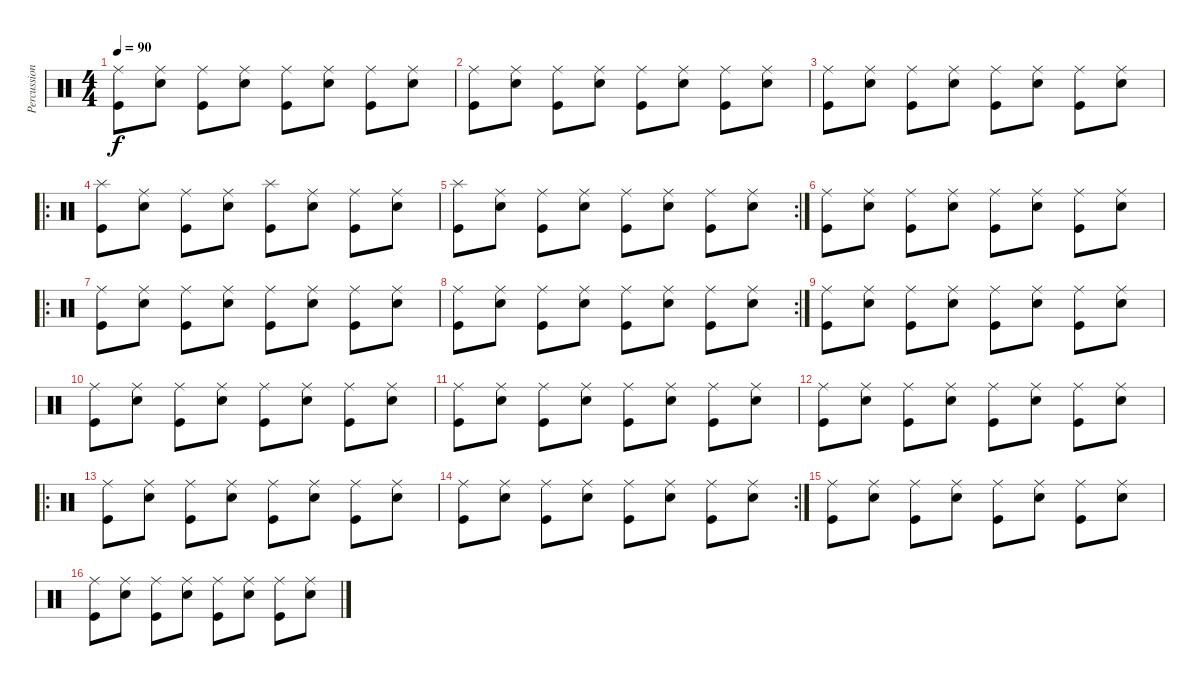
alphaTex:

\track ("Percussion" "Percussion") {instrument percussion}
\staff {score}
\articulation defaults
\ts (4 4)
\tempo 90
\clef neutral
\ks c
("Ride (middle)" "Kick (hit)").8{dy f} ("Ride (middle)" "Electric Snare (hit)").8 ("Ride (middle)" "Kick (hit)").8 ("Ride (middle)" "Electric Snare (hit)").8 ("Ride (middle)" "Kick (hit)").8 ("Ride (middle)" "Electric Snare (hit)").8 ("Ride (middle)" "Kick (hit)").8 ("Ride (middle)" "Electric Snare (hit)").8 |
("Ride (middle)" "Kick (hit)").8 ("Ride (middle)" "Electric Snare (hit)").8 ("Ride (middle)" "Kick (hit)").8 ("Ride (middle)" "Electric Snare (hit)").8 ("Ride (middle)" "Kick (hit)").8 ("Ride (middle)" "Electric Snare (hit)").8 ("Ride (middle)" "Kick (hit)").8 ("Ride (middle)" "Electric Snare (hit)").8 |
("Ride (middle)" "Kick (hit)").8 ("Ride (middle)" "Electric Snare (hit)").8 ("Ride (middle)" "Kick (hit)").8 ("Ride (middle)" "Electric Snare (hit)").8 ("Ride (middle)" "Kick (hit)").8 ("Ride (middle)" "Electric Snare (hit)").8 ("Ride (middle)" "Kick (hit)").8 ("Ride (middle)" "Electric Snare (hit)").8 |
\ro
("Splash (hit)" "Kick (hit)").8 ("Ride (middle)" "Electric Snare (hit)").8 ("Ride (middle)" "Kick (hit)").8 ("Ride (middle)" "Electric Snare (hit)").8 ("Splash (hit)" "Kick (hit)").8 ("Ride (middle)" "Electric Snare (hit)").8 ("Ride (middle)" "Kick (hit)").8 ("Ride (middle)" "Electric Snare (hit)").8 |
\rc 2
("Splash (hit)" "Kick (hit)").8 ("Ride (middle)" "Electric Snare (hit)").8 ("Ride (middle)" "Kick (hit)").8 ("Ride (middle)" "Electric Snare (hit)").8 ("Ride (middle)" "Kick (hit)").8 ("Ride (middle)" "Electric Snare (hit)").8 ("Ride (middle)" "Kick (hit)").8 ("Ride (middle)" "Electric Snare (hit)").8 |
("Ride (middle)" "Kick (hit)").8 ("Ride (middle)" "Electric Snare (hit)").8 ("Ride (middle)" "Kick (hit)").8 ("Ride (middle)" "Electric Snare (hit)").8 ("Ride (middle)" "Kick (hit)").8 ("Ride (middle)" "Electric Snare (hit)").8 ("Ride (middle)" "Kick (hit)").8 ("Ride (middle)" "Electric Snare (hit)").8 |
\ro
("Ride (middle)" "Kick (hit)").8 ("Ride (middle)" "Electric Snare (hit)").8 ("Ride (middle)" "Kick (hit)").8 ("Ride (middle)" "Electric Snare (hit)").8 ("Ride (middle)" "Kick (hit)").8 ("Ride (middle)" "Electric Snare (hit)").8 ("Ride (middle)" "Kick (hit)").8 ("Ride (middle)" "Electric Snare (hit)").8 |
\rc 2
("Ride (middle)" "Kick (hit)").8 ("Ride (middle)" "Electric Snare (hit)").8 ("Ride (middle)" "Kick (hit)").8 ("Ride (middle)" "Electric Snare (hit)").8 ("Ride (middle)" "Kick (hit)").8 ("Ride (middle)" "Electric Snare (hit)").8 ("Ride (middle)" "Kick (hit)").8 ("Ride (middle)" "Electric Snare (hit)").8 |
("Ride (middle)" "Kick (hit)").8 ("Ride (middle)" "Electric Snare (hit)").8 ("Ride (middle)" "Kick (hit)").8 ("Ride (middle)" "Electric Snare (hit)").8 ("Ride (middle)" "Kick (hit)").8 ("Ride (middle)" "Electric Snare (hit)").8 ("Ride (middle)" "Kick (hit)").8 ("Ride (middle)" "Electric Snare (hit)").8 |
("Ride (middle)" "Kick (hit)").8 ("Ride (middle)" "Electric Snare (hit)").8 ("Ride (middle)" "Kick (hit)").8 ("Ride (middle)" "Electric Snare (hit)").8 ("Ride (middle)" "Kick (hit)").8 ("Ride (middle)" "Electric Snare (hit)").8 ("Ride (middle)" "Kick (hit)").8 ("Ride (middle)" "Electric Snare (hit)").8 |
("Ride (middle)" "Kick (hit)").8 ("Ride (middle)" "Electric Snare (hit)").8 ("Ride (middle)" "Kick (hit)").8 ("Ride (middle)" "Electric Snare (hit)").8 ("Ride (middle)" "Kick (hit)").8 ("Ride (middle)" "Electric Snare (hit)").8 ("Ride (middle)" "Kick (hit)").8 ("Ride (middle)" "Electric Snare (hit)").8 |
("Ride (middle)" "Kick (hit)").8 ("Ride (middle)" "Electric Snare (hit)").8 ("Ride (middle)" "Kick (hit)").8 ("Ride (middle)" "Electric Snare (hit)").8 ("Ride (middle)" "Kick (hit)").8 ("Ride (middle)" "Electric Snare (hit)").8 ("Ride (middle)" "Kick (hit)").8 ("Ride (middle)" "Electric Snare (hit)").8 |
\ro
("Ride (middle)" "Kick (hit)").8 ("Ride (middle)" "Electric Snare (hit)").8 ("Ride (middle)" "Kick (hit)").8 ("Ride (middle)" "Electric Snare (hit)").8 ("Ride (middle)" "Kick (hit)").8 ("Ride (middle)" "Electric Snare (hit)").8 ("Ride (middle)" "Kick (hit)").8 ("Ride (middle)" "Electric Snare (hit)").8 |
\rc 2
("Ride (middle)" "Kick (hit)").8 ("Ride (middle)" "Electric Snare (hit)").8 ("Ride (middle)" "Kick (hit)").8 ("Ride (middle)" "Electric Snare (hit)").8 ("Ride (middle)" "Kick (hit)").8 ("Ride (middle)" "Electric Snare (hit)").8 ("Ride (middle)" "Kick (hit)").8 ("Ride (middle)" "Electric Snare (hit)").8 |
("Ride (middle)" "Kick (hit)").8 ("Ride (middle)" "Electric Snare (hit)").8 ("Ride (middle)" "Kick (hit)").8 ("Ride (middle)" "Electric Snare (hit)").8 ("Ride (middle)" "Kick (hit)").8 ("Ride (middle)" "Electric Snare (hit)").8 ("Ride (middle)" "Kick (hit)").8 ("Ride (middle)" "Electric Snare (hit)").8 |
("Ride (middle)" "Kick (hit)").8 ("Ride (middle)" "Electric Snare (hit)").8 ("Ride (middle)" "Kick (hit)").8 ("Ride (middle)" "Electric Snare (hit)").8 ("Ride (middle)" "Kick (hit)").8 ("Ride (middle)" "Electric Snare (hit)").8 ("Ride (middle)" "Kick (hit)").8 ("Ride (middle)" "Electric Snare (hit)").8
